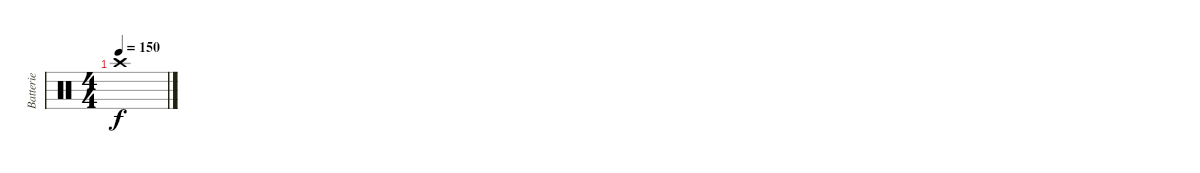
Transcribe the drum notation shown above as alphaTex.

\track ("Batterie" "Batterie") {instrument percussion}
\staff {score}
\articulation defaults
\ts (4 4)
\tempo 150
\clef neutral
\ks c "Crash high (hit)".1{dy f}
